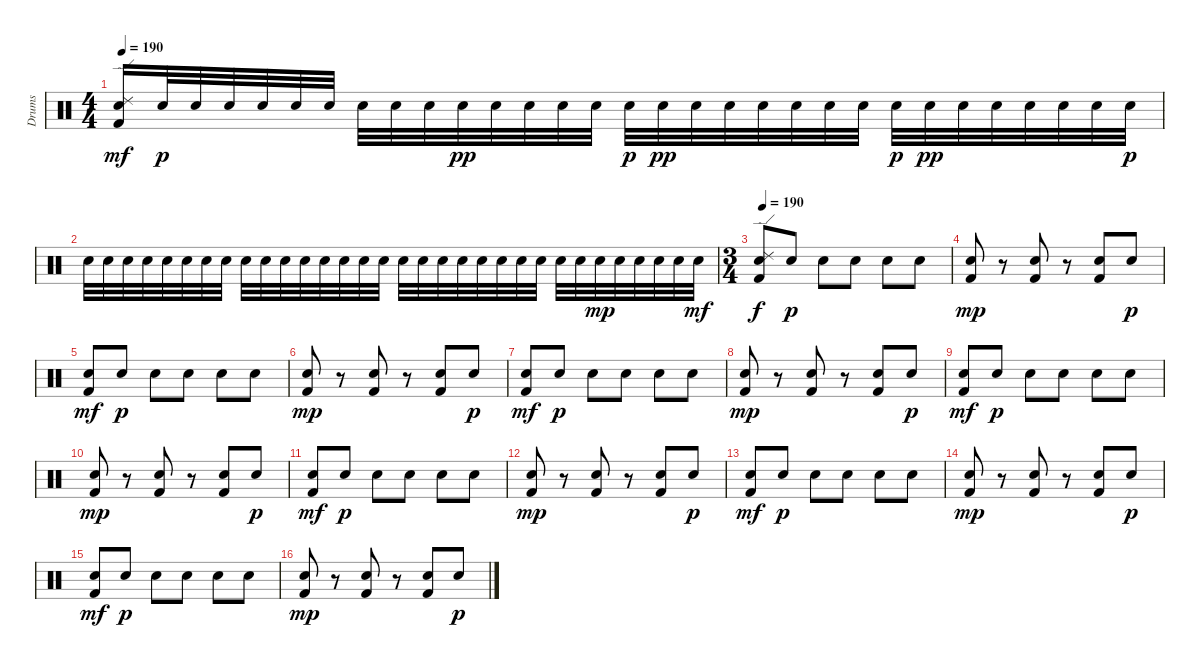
\track ("Drums" "Drums") {instrument percussion}
\staff {score}
\articulation defaults
\ts (4 4)
\tempo 190
\tempo 135
\tempo 190
\clef neutral
\ks c
("Kick (hit) 2" "Electric Snare (hit)" "Ride (edge) 2").16{dy mf} "Electric Snare (hit)".32{dy p} "Electric Snare (hit)".32 "Electric Snare (hit)".32 "Electric Snare (hit)".32 "Electric Snare (hit)".32 "Electric Snare (hit)".32 "Electric Snare (hit)".32 "Electric Snare (hit)".32 "Electric Snare (hit)".32 "Electric Snare (hit)".32{dy pp} "Electric Snare (hit)".32 "Electric Snare (hit)".32 "Electric Snare (hit)".32 "Electric Snare (hit)".32 "Electric Snare (hit)".32{dy p} "Electric Snare (hit)".32{dy pp} "Electric Snare (hit)".32 "Electric Snare (hit)".32 "Electric Snare (hit)".32 "Electric Snare (hit)".32 "Electric Snare (hit)".32 "Electric Snare (hit)".32 "Electric Snare (hit)".32{dy p} "Electric Snare (hit)".32{dy pp} "Electric Snare (hit)".32 "Electric Snare (hit)".32 "Electric Snare (hit)".32 "Electric Snare (hit)".32 "Electric Snare (hit)".32 "Electric Snare (hit)".32{dy p} |
"Electric Snare (hit)".32 "Electric Snare (hit)".32 "Electric Snare (hit)".32 "Electric Snare (hit)".32 "Electric Snare (hit)".32 "Electric Snare (hit)".32 "Electric Snare (hit)".32 "Electric Snare (hit)".32 "Electric Snare (hit)".32 "Electric Snare (hit)".32 "Electric Snare (hit)".32 "Electric Snare (hit)".32 "Electric Snare (hit)".32 "Electric Snare (hit)".32 "Electric Snare (hit)".32 "Electric Snare (hit)".32 "Electric Snare (hit)".32 "Electric Snare (hit)".32 "Electric Snare (hit)".32 "Electric Snare (hit)".32 "Electric Snare (hit)".32 "Electric Snare (hit)".32 "Electric Snare (hit)".32 "Electric Snare (hit)".32 "Electric Snare (hit)".32 "Electric Snare (hit)".32 "Electric Snare (hit)".32{dy mp} "Electric Snare (hit)".32 "Electric Snare (hit)".32 "Electric Snare (hit)".32 "Electric Snare (hit)".32 "Electric Snare (hit)".32{dy mf} |
\ts (3 4)
\tempo 190
("Kick (hit) 2" "Ride (edge) 2" "Electric Snare (hit)").8{dy f} "Electric Snare (hit)".8{dy p} "Electric Snare (hit)".8 "Electric Snare (hit)".8 "Electric Snare (hit)".8 "Electric Snare (hit)".8 |
("Kick (hit) 2" "Electric Snare (hit)").8{dy mp} r.8 ("Kick (hit) 2" "Electric Snare (hit)").8 r.8 ("Kick (hit) 2" "Electric Snare (hit)").8 "Electric Snare (hit)".8{dy p} |
("Kick (hit) 2" "Electric Snare (hit)").8{dy mf} "Electric Snare (hit)".8{dy p} "Electric Snare (hit)".8 "Electric Snare (hit)".8 "Electric Snare (hit)".8 "Electric Snare (hit)".8 |
("Kick (hit) 2" "Electric Snare (hit)").8{dy mp} r.8 ("Kick (hit) 2" "Electric Snare (hit)").8 r.8 ("Kick (hit) 2" "Electric Snare (hit)").8 "Electric Snare (hit)".8{dy p} |
("Kick (hit) 2" "Electric Snare (hit)").8{dy mf} "Electric Snare (hit)".8{dy p} "Electric Snare (hit)".8 "Electric Snare (hit)".8 "Electric Snare (hit)".8 "Electric Snare (hit)".8 |
("Kick (hit) 2" "Electric Snare (hit)").8{dy mp} r.8 ("Kick (hit) 2" "Electric Snare (hit)").8 r.8 ("Kick (hit) 2" "Electric Snare (hit)").8 "Electric Snare (hit)".8{dy p} |
("Kick (hit) 2" "Electric Snare (hit)").8{dy mf} "Electric Snare (hit)".8{dy p} "Electric Snare (hit)".8 "Electric Snare (hit)".8 "Electric Snare (hit)".8 "Electric Snare (hit)".8 |
("Kick (hit) 2" "Electric Snare (hit)").8{dy mp} r.8 ("Kick (hit) 2" "Electric Snare (hit)").8 r.8 ("Kick (hit) 2" "Electric Snare (hit)").8 "Electric Snare (hit)".8{dy p} |
("Kick (hit) 2" "Electric Snare (hit)").8{dy mf} "Electric Snare (hit)".8{dy p} "Electric Snare (hit)".8 "Electric Snare (hit)".8 "Electric Snare (hit)".8 "Electric Snare (hit)".8 |
("Kick (hit) 2" "Electric Snare (hit)").8{dy mp} r.8 ("Kick (hit) 2" "Electric Snare (hit)").8 r.8 ("Kick (hit) 2" "Electric Snare (hit)").8 "Electric Snare (hit)".8{dy p} |
("Kick (hit) 2" "Electric Snare (hit)").8{dy mf} "Electric Snare (hit)".8{dy p} "Electric Snare (hit)".8 "Electric Snare (hit)".8 "Electric Snare (hit)".8 "Electric Snare (hit)".8 |
("Kick (hit) 2" "Electric Snare (hit)").8{dy mp} r.8 ("Kick (hit) 2" "Electric Snare (hit)").8 r.8 ("Kick (hit) 2" "Electric Snare (hit)").8 "Electric Snare (hit)".8{dy p} |
("Kick (hit) 2" "Electric Snare (hit)").8{dy mf} "Electric Snare (hit)".8{dy p} "Electric Snare (hit)".8 "Electric Snare (hit)".8 "Electric Snare (hit)".8 "Electric Snare (hit)".8 |
("Kick (hit) 2" "Electric Snare (hit)").8{dy mp} r.8 ("Kick (hit) 2" "Electric Snare (hit)").8 r.8 ("Kick (hit) 2" "Electric Snare (hit)").8 "Electric Snare (hit)".8{dy p}
